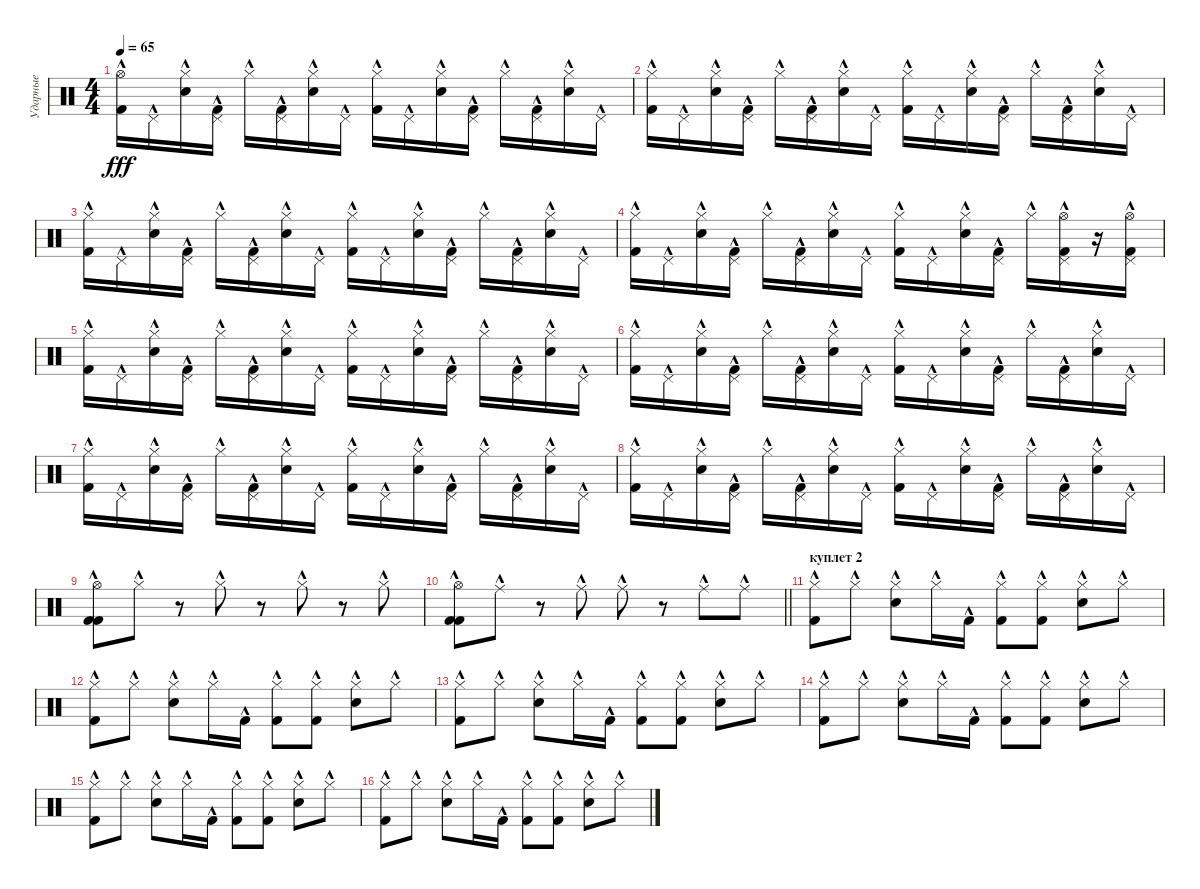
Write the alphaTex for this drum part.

\track ("Ударные" "Ударные") {instrument percussion}
\staff {score}
\articulation defaults
\ts (4 4)
\tempo 65
\clef neutral
\ks c
("Hi-Hat (open)"{hac} "Kick (hit) 2"{hac}).16{dy fff} "Pedal Hi-Hat (hit)"{hac}.16 ("Hi-Hat (closed)"{hac} "Electric Snare (hit)"{hac}).16 ("Pedal Hi-Hat (hit)"{hac} "Kick (hit) 2"{hac}).16 "Hi-Hat (closed)"{hac}.16 ("Pedal Hi-Hat (hit)"{hac} "Kick (hit) 2"{hac}).16 ("Hi-Hat (closed)"{hac} "Electric Snare (hit)"{hac}).16 "Pedal Hi-Hat (hit)"{hac}.16 ("Hi-Hat (closed)"{hac} "Kick (hit) 2"{hac}).16 "Pedal Hi-Hat (hit)"{hac}.16 ("Hi-Hat (closed)"{hac} "Electric Snare (hit)"{hac}).16 ("Pedal Hi-Hat (hit)"{hac} "Kick (hit) 2"{hac}).16 "Hi-Hat (closed)"{hac}.16 ("Pedal Hi-Hat (hit)"{hac} "Kick (hit) 2"{hac}).16 ("Hi-Hat (closed)"{hac} "Electric Snare (hit)"{hac}).16 "Pedal Hi-Hat (hit)"{hac}.16 |
("Hi-Hat (closed)"{hac} "Kick (hit) 2"{hac}).16 "Pedal Hi-Hat (hit)"{hac}.16 ("Hi-Hat (closed)"{hac} "Electric Snare (hit)"{hac}).16 ("Pedal Hi-Hat (hit)"{hac} "Kick (hit) 2"{hac}).16 "Hi-Hat (closed)"{hac}.16 ("Pedal Hi-Hat (hit)"{hac} "Kick (hit) 2"{hac}).16 ("Hi-Hat (closed)"{hac} "Electric Snare (hit)"{hac}).16 "Pedal Hi-Hat (hit)"{hac}.16 ("Hi-Hat (closed)"{hac} "Kick (hit) 2"{hac}).16 "Pedal Hi-Hat (hit)"{hac}.16 ("Hi-Hat (closed)"{hac} "Electric Snare (hit)"{hac}).16 ("Pedal Hi-Hat (hit)"{hac} "Kick (hit) 2"{hac}).16 "Hi-Hat (closed)"{hac}.16 ("Pedal Hi-Hat (hit)"{hac} "Kick (hit) 2"{hac}).16 ("Hi-Hat (closed)"{hac} "Electric Snare (hit)"{hac}).16 "Pedal Hi-Hat (hit)"{hac}.16 |
("Hi-Hat (closed)"{hac} "Kick (hit) 2"{hac}).16 "Pedal Hi-Hat (hit)"{hac}.16 ("Hi-Hat (closed)"{hac} "Electric Snare (hit)"{hac}).16 ("Pedal Hi-Hat (hit)"{hac} "Kick (hit) 2"{hac}).16 "Hi-Hat (closed)"{hac}.16 ("Pedal Hi-Hat (hit)"{hac} "Kick (hit) 2"{hac}).16 ("Hi-Hat (closed)"{hac} "Electric Snare (hit)"{hac}).16 "Pedal Hi-Hat (hit)"{hac}.16 ("Hi-Hat (closed)"{hac} "Kick (hit) 2"{hac}).16 "Pedal Hi-Hat (hit)"{hac}.16 ("Hi-Hat (closed)"{hac} "Electric Snare (hit)"{hac}).16 ("Pedal Hi-Hat (hit)"{hac} "Kick (hit) 2"{hac}).16 "Hi-Hat (closed)"{hac}.16 ("Pedal Hi-Hat (hit)"{hac} "Kick (hit) 2"{hac}).16 ("Hi-Hat (closed)"{hac} "Electric Snare (hit)"{hac}).16 "Pedal Hi-Hat (hit)"{hac}.16 |
("Hi-Hat (closed)"{hac} "Kick (hit) 2"{hac}).16 "Pedal Hi-Hat (hit)"{hac}.16 ("Hi-Hat (closed)"{hac} "Electric Snare (hit)"{hac}).16 ("Pedal Hi-Hat (hit)"{hac} "Kick (hit) 2"{hac}).16 "Hi-Hat (closed)"{hac}.16 ("Pedal Hi-Hat (hit)"{hac} "Kick (hit) 2"{hac}).16 ("Hi-Hat (closed)"{hac} "Electric Snare (hit)"{hac}).16 "Pedal Hi-Hat (hit)"{hac}.16 ("Hi-Hat (closed)"{hac} "Kick (hit) 2"{hac}).16 "Pedal Hi-Hat (hit)"{hac}.16 ("Hi-Hat (closed)"{hac} "Electric Snare (hit)"{hac}).16 ("Pedal Hi-Hat (hit)"{hac} "Kick (hit) 2"{hac}).16 "Hi-Hat (closed)"{hac}.16 ("Pedal Hi-Hat (hit)"{hac} "Kick (hit) 2"{hac} "Hi-Hat (open)"{hac}).16 r.16 ("Pedal Hi-Hat (hit)"{hac} "Kick (hit) 2"{hac} "Hi-Hat (open)"{hac}).16 |
("Hi-Hat (closed)"{hac} "Kick (hit) 2"{hac}).16 "Pedal Hi-Hat (hit)"{hac}.16 ("Hi-Hat (closed)"{hac} "Electric Snare (hit)"{hac}).16 ("Pedal Hi-Hat (hit)"{hac} "Kick (hit) 2"{hac}).16 "Hi-Hat (closed)"{hac}.16 ("Pedal Hi-Hat (hit)"{hac} "Kick (hit) 2"{hac}).16 ("Hi-Hat (closed)"{hac} "Electric Snare (hit)"{hac}).16 "Pedal Hi-Hat (hit)"{hac}.16 ("Hi-Hat (closed)"{hac} "Kick (hit) 2"{hac}).16 "Pedal Hi-Hat (hit)"{hac}.16 ("Hi-Hat (closed)"{hac} "Electric Snare (hit)"{hac}).16 ("Pedal Hi-Hat (hit)"{hac} "Kick (hit) 2"{hac}).16 "Hi-Hat (closed)"{hac}.16 ("Pedal Hi-Hat (hit)"{hac} "Kick (hit) 2"{hac}).16 ("Hi-Hat (closed)"{hac} "Electric Snare (hit)"{hac}).16 "Pedal Hi-Hat (hit)"{hac}.16 |
("Hi-Hat (closed)"{hac} "Kick (hit) 2"{hac}).16 "Pedal Hi-Hat (hit)"{hac}.16 ("Hi-Hat (closed)"{hac} "Electric Snare (hit)"{hac}).16 ("Pedal Hi-Hat (hit)"{hac} "Kick (hit) 2"{hac}).16 "Hi-Hat (closed)"{hac}.16 ("Pedal Hi-Hat (hit)"{hac} "Kick (hit) 2"{hac}).16 ("Hi-Hat (closed)"{hac} "Electric Snare (hit)"{hac}).16 "Pedal Hi-Hat (hit)"{hac}.16 ("Hi-Hat (closed)"{hac} "Kick (hit) 2"{hac}).16 "Pedal Hi-Hat (hit)"{hac}.16 ("Hi-Hat (closed)"{hac} "Electric Snare (hit)"{hac}).16 ("Pedal Hi-Hat (hit)"{hac} "Kick (hit) 2"{hac}).16 "Hi-Hat (closed)"{hac}.16 ("Pedal Hi-Hat (hit)"{hac} "Kick (hit) 2"{hac}).16 ("Hi-Hat (closed)"{hac} "Electric Snare (hit)"{hac}).16 "Pedal Hi-Hat (hit)"{hac}.16 |
("Hi-Hat (closed)"{hac} "Kick (hit) 2"{hac}).16 "Pedal Hi-Hat (hit)"{hac}.16 ("Hi-Hat (closed)"{hac} "Electric Snare (hit)"{hac}).16 ("Pedal Hi-Hat (hit)"{hac} "Kick (hit) 2"{hac}).16 "Hi-Hat (closed)"{hac}.16 ("Pedal Hi-Hat (hit)"{hac} "Kick (hit) 2"{hac}).16 ("Hi-Hat (closed)"{hac} "Electric Snare (hit)"{hac}).16 "Pedal Hi-Hat (hit)"{hac}.16 ("Hi-Hat (closed)"{hac} "Kick (hit) 2"{hac}).16 "Pedal Hi-Hat (hit)"{hac}.16 ("Hi-Hat (closed)"{hac} "Electric Snare (hit)"{hac}).16 ("Pedal Hi-Hat (hit)"{hac} "Kick (hit) 2"{hac}).16 "Hi-Hat (closed)"{hac}.16 ("Pedal Hi-Hat (hit)"{hac} "Kick (hit) 2"{hac}).16 ("Hi-Hat (closed)"{hac} "Electric Snare (hit)"{hac}).16 "Pedal Hi-Hat (hit)"{hac}.16 |
("Hi-Hat (closed)"{hac} "Kick (hit) 2"{hac}).16 "Pedal Hi-Hat (hit)"{hac}.16 ("Hi-Hat (closed)"{hac} "Electric Snare (hit)"{hac}).16 ("Pedal Hi-Hat (hit)"{hac} "Kick (hit) 2"{hac}).16 "Hi-Hat (closed)"{hac}.16 ("Pedal Hi-Hat (hit)"{hac} "Kick (hit) 2"{hac}).16 ("Hi-Hat (closed)"{hac} "Electric Snare (hit)"{hac}).16 "Pedal Hi-Hat (hit)"{hac}.16 ("Hi-Hat (closed)"{hac} "Kick (hit) 2"{hac}).16 "Pedal Hi-Hat (hit)"{hac}.16 ("Hi-Hat (closed)"{hac} "Electric Snare (hit)"{hac}).16 ("Pedal Hi-Hat (hit)"{hac} "Kick (hit) 2"{hac}).16 "Hi-Hat (closed)"{hac}.16 ("Pedal Hi-Hat (hit)"{hac} "Kick (hit) 2"{hac}).16 ("Hi-Hat (closed)"{hac} "Electric Snare (hit)"{hac}).16 "Pedal Hi-Hat (hit)"{hac}.16 |
("Hi-Hat (open)"{hac} "Kick (hit) 2"{hac} "Kick (hit) 2"{hac}).8 "Hi-Hat (closed)"{hac}.8 r.8 "Hi-Hat (closed)"{hac}.8 r.8 "Hi-Hat (closed)"{hac}.8 r.8 "Hi-Hat (closed)"{hac}.8 |
\barLineRight lightlight
("Hi-Hat (open)"{hac} "Kick (hit) 2"{hac} "Kick (hit) 2"{hac}).8 "Ride (middle)"{hac}.8 r.8 "Ride (middle)"{hac}.8 "Ride (middle)"{hac}.8 r.8 "Ride (middle)"{hac}.8 "Ride (middle)"{hac}.8 |
\section ("" "куплет 2")
("Hi-Hat (closed)"{hac} "Kick (hit) 2"{hac}).8 "Hi-Hat (closed)"{hac}.8 ("Hi-Hat (closed)"{hac} "Electric Snare (hit)"{hac}).8 "Hi-Hat (closed)"{hac}.16 "Kick (hit) 2"{hac}.16 ("Hi-Hat (closed)"{hac} "Kick (hit) 2"{hac}).8 ("Hi-Hat (closed)"{hac} "Kick (hit) 2"{hac}).8 ("Hi-Hat (closed)"{hac} "Electric Snare (hit)"{hac}).8 "Hi-Hat (closed)"{hac}.8 |
("Hi-Hat (closed)"{hac} "Kick (hit) 2"{hac}).8 "Hi-Hat (closed)"{hac}.8 ("Hi-Hat (closed)"{hac} "Electric Snare (hit)"{hac}).8 "Hi-Hat (closed)"{hac}.16 "Kick (hit) 2"{hac}.16 ("Hi-Hat (closed)"{hac} "Kick (hit) 2"{hac}).8 ("Hi-Hat (closed)"{hac} "Kick (hit) 2"{hac}).8 ("Hi-Hat (closed)"{hac} "Electric Snare (hit)"{hac}).8 "Hi-Hat (closed)"{hac}.8 |
("Hi-Hat (closed)"{hac} "Kick (hit) 2"{hac}).8 "Hi-Hat (closed)"{hac}.8 ("Hi-Hat (closed)"{hac} "Electric Snare (hit)"{hac}).8 "Hi-Hat (closed)"{hac}.16 "Kick (hit) 2"{hac}.16 ("Hi-Hat (closed)"{hac} "Kick (hit) 2"{hac}).8 ("Hi-Hat (closed)"{hac} "Kick (hit) 2"{hac}).8 ("Hi-Hat (closed)"{hac} "Electric Snare (hit)"{hac}).8 "Hi-Hat (closed)"{hac}.8 |
("Hi-Hat (closed)"{hac} "Kick (hit) 2"{hac}).8 "Hi-Hat (closed)"{hac}.8 ("Hi-Hat (closed)"{hac} "Electric Snare (hit)"{hac}).8 "Hi-Hat (closed)"{hac}.16 "Kick (hit) 2"{hac}.16 ("Hi-Hat (closed)"{hac} "Kick (hit) 2"{hac}).8 ("Hi-Hat (closed)"{hac} "Kick (hit) 2"{hac}).8 ("Hi-Hat (closed)"{hac} "Electric Snare (hit)"{hac}).8 "Hi-Hat (closed)"{hac}.8 |
("Hi-Hat (closed)"{hac} "Kick (hit) 2"{hac}).8 "Hi-Hat (closed)"{hac}.8 ("Hi-Hat (closed)"{hac} "Electric Snare (hit)"{hac}).8 "Hi-Hat (closed)"{hac}.16 "Kick (hit) 2"{hac}.16 ("Hi-Hat (closed)"{hac} "Kick (hit) 2"{hac}).8 ("Hi-Hat (closed)"{hac} "Kick (hit) 2"{hac}).8 ("Hi-Hat (closed)"{hac} "Electric Snare (hit)"{hac}).8 "Hi-Hat (closed)"{hac}.8 |
("Hi-Hat (closed)"{hac} "Kick (hit) 2"{hac}).8 "Hi-Hat (closed)"{hac}.8 ("Hi-Hat (closed)"{hac} "Electric Snare (hit)"{hac}).8 "Hi-Hat (closed)"{hac}.16 "Kick (hit) 2"{hac}.16 ("Hi-Hat (closed)"{hac} "Kick (hit) 2"{hac}).8 ("Hi-Hat (closed)"{hac} "Kick (hit) 2"{hac}).8 ("Hi-Hat (closed)"{hac} "Electric Snare (hit)"{hac}).8 "Hi-Hat (closed)"{hac}.8
